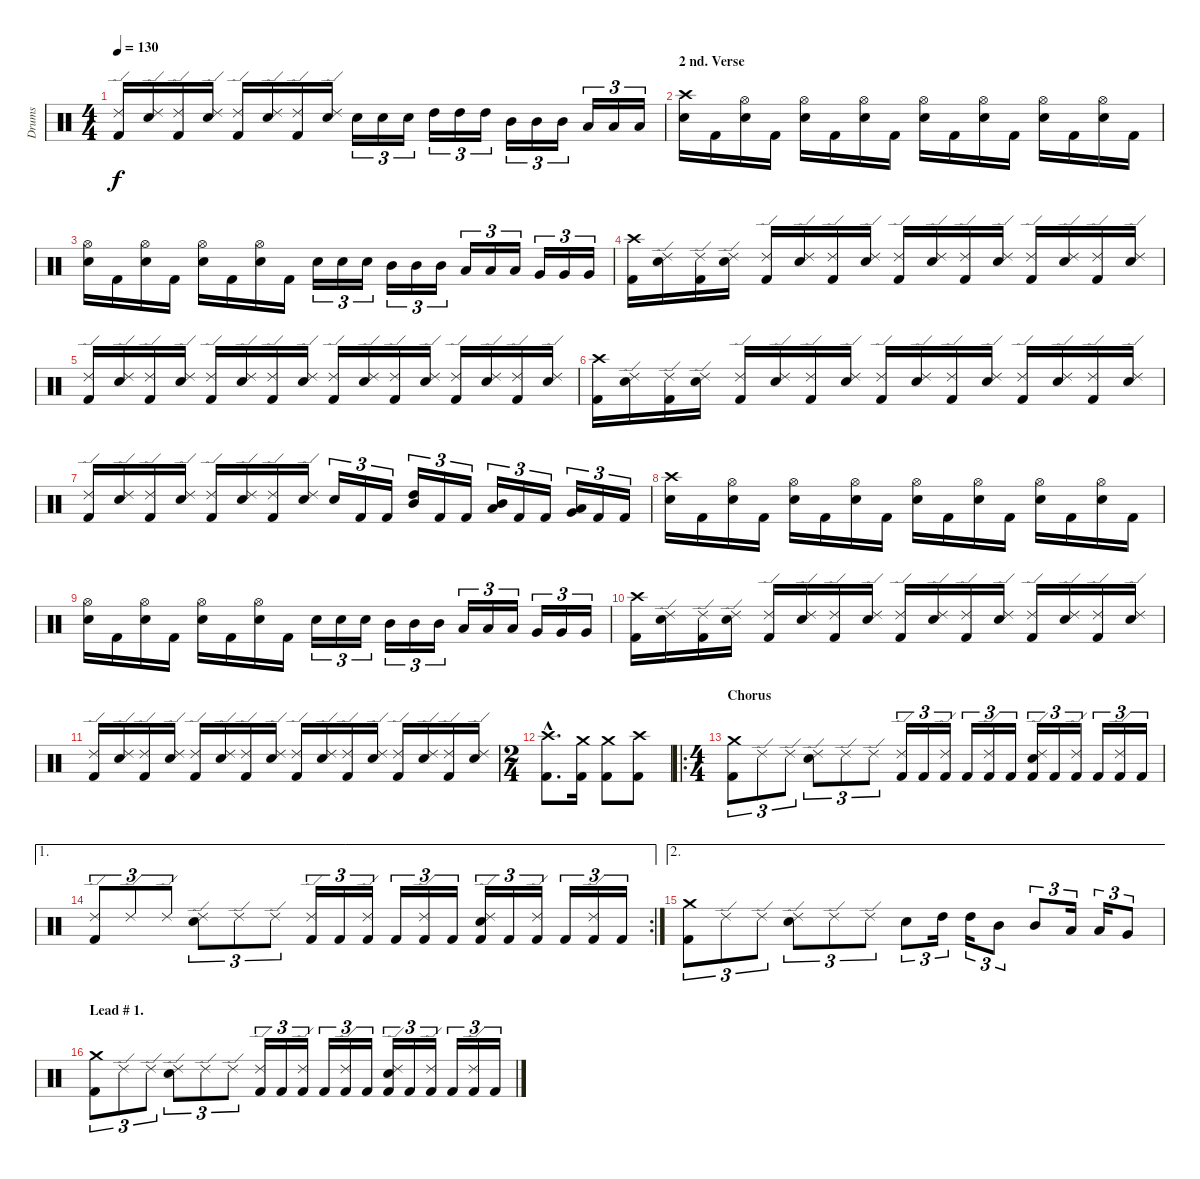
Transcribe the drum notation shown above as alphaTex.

\track ("Drums" "Drums") {instrument percussion}
\staff {score}
\articulation defaults
\ts (4 4)
\tempo 130
\clef neutral
\ks c
("Ride (edge) 2" "Kick (hit) 2").16{dy f} ("Ride (edge) 2" "Snare (hit) 2").16 ("Ride (edge) 2" "Kick (hit) 2").16 ("Ride (edge) 2" "Snare (hit) 2").16 ("Ride (edge) 2" "Kick (hit) 2").16 ("Ride (edge) 2" "Snare (hit) 2").16 ("Ride (edge) 2" "Kick (hit) 2").16 ("Ride (edge) 2" "Snare (hit) 2").16 "Snare (hit) 2".16{tu (3 2)} "Snare (hit) 2".16{tu (3 2)} "Snare (hit) 2".16{tu (3 2)} "High Tom (hit)".16{tu (3 2)} "High Tom (hit)".16{tu (3 2)} "High Tom (hit)".16{tu (3 2)} "Mid Tom (hit)".16{tu (3 2)} "Mid Tom (hit)".16{tu (3 2)} "Mid Tom (hit)".16{tu (3 2)} "Low Tom (hit)".16{tu (3 2)} "Low Tom (hit)".16{tu (3 2)} "Low Tom (hit)".16{tu (3 2)} |
\section ("" "2 nd. Verse")
("Crash high (hit)" "Snare (hit) 2").16 "Kick (hit) 2".16 ("Hi-Hat (open)" "Snare (hit) 2").16 "Kick (hit) 2".16 ("Hi-Hat (open)" "Snare (hit) 2").16 "Kick (hit) 2".16 ("Hi-Hat (open)" "Snare (hit) 2").16 "Kick (hit) 2".16 ("Hi-Hat (open)" "Snare (hit) 2").16 "Kick (hit) 2".16 ("Hi-Hat (open)" "Snare (hit) 2").16 "Kick (hit) 2".16 ("Hi-Hat (open)" "Snare (hit) 2").16 "Kick (hit) 2".16 ("Hi-Hat (open)" "Snare (hit) 2").16 "Kick (hit) 2".16 |
("Hi-Hat (open)" "Snare (hit) 2").16 "Kick (hit) 2".16 ("Hi-Hat (open)" "Snare (hit) 2").16 "Kick (hit) 2".16 ("Hi-Hat (open)" "Snare (hit) 2").16 "Kick (hit) 2".16 ("Hi-Hat (open)" "Snare (hit) 2").16 "Kick (hit) 2".16 "Snare (hit) 2".16{tu (3 2)} "Snare (hit) 2".16{tu (3 2)} "Snare (hit) 2".16{tu (3 2)} "Mid Tom (hit)".16{tu (3 2)} "Mid Tom (hit)".16{tu (3 2)} "Mid Tom (hit)".16{tu (3 2)} "Low Tom (hit)".16{tu (3 2)} "Low Tom (hit)".16{tu (3 2)} "Low Tom (hit)".16{tu (3 2)} "Very Low Tom (hit)".16{tu (3 2)} "Very Low Tom (hit)".16{tu (3 2)} "Very Low Tom (hit)".16{tu (3 2)} |
("Crash high (hit)" "Kick (hit) 2").16 ("Ride (edge) 2" "Snare (hit) 2").16 ("Ride (edge) 2" "Kick (hit) 2").16 ("Ride (edge) 2" "Snare (hit) 2").16 ("Ride (edge) 2" "Kick (hit) 2").16 ("Ride (edge) 2" "Snare (hit) 2").16 ("Ride (edge) 2" "Kick (hit) 2").16 ("Ride (edge) 2" "Snare (hit) 2").16 ("Ride (edge) 2" "Kick (hit) 2").16 ("Ride (edge) 2" "Snare (hit) 2").16 ("Ride (edge) 2" "Kick (hit) 2").16 ("Ride (edge) 2" "Snare (hit) 2").16 ("Ride (edge) 2" "Kick (hit) 2").16 ("Ride (edge) 2" "Snare (hit) 2").16 ("Ride (edge) 2" "Kick (hit) 2").16 ("Ride (edge) 2" "Snare (hit) 2").16 |
("Ride (edge) 2" "Kick (hit) 2").16 ("Ride (edge) 2" "Snare (hit) 2").16 ("Ride (edge) 2" "Kick (hit) 2").16 ("Ride (edge) 2" "Snare (hit) 2").16 ("Ride (edge) 2" "Kick (hit) 2").16 ("Ride (edge) 2" "Snare (hit) 2").16 ("Ride (edge) 2" "Kick (hit) 2").16 ("Ride (edge) 2" "Snare (hit) 2").16 ("Ride (edge) 2" "Kick (hit) 2").16 ("Ride (edge) 2" "Snare (hit) 2").16 ("Ride (edge) 2" "Kick (hit) 2").16 ("Ride (edge) 2" "Snare (hit) 2").16 ("Ride (edge) 2" "Kick (hit) 2").16 ("Ride (edge) 2" "Snare (hit) 2").16 ("Ride (edge) 2" "Kick (hit) 2").16 ("Ride (edge) 2" "Snare (hit) 2").16 |
("Crash high (hit)" "Kick (hit) 2").16 ("Ride (edge) 2" "Snare (hit) 2").16 ("Ride (edge) 2" "Kick (hit) 2").16 ("Ride (edge) 2" "Snare (hit) 2").16 ("Ride (edge) 2" "Kick (hit) 2").16 ("Ride (edge) 2" "Snare (hit) 2").16 ("Ride (edge) 2" "Kick (hit) 2").16 ("Ride (edge) 2" "Snare (hit) 2").16 ("Ride (edge) 2" "Kick (hit) 2").16 ("Ride (edge) 2" "Snare (hit) 2").16 ("Ride (edge) 2" "Kick (hit) 2").16 ("Ride (edge) 2" "Snare (hit) 2").16 ("Ride (edge) 2" "Kick (hit) 2").16 ("Ride (edge) 2" "Snare (hit) 2").16 ("Ride (edge) 2" "Kick (hit) 2").16 ("Ride (edge) 2" "Snare (hit) 2").16 |
("Ride (edge) 2" "Kick (hit) 2").16 ("Ride (edge) 2" "Snare (hit) 2").16 ("Ride (edge) 2" "Kick (hit) 2").16 ("Ride (edge) 2" "Snare (hit) 2").16 ("Ride (edge) 2" "Kick (hit) 2").16 ("Ride (edge) 2" "Snare (hit) 2").16 ("Ride (edge) 2" "Kick (hit) 2").16 ("Ride (edge) 2" "Snare (hit) 2").16 "Snare (hit) 2".16{tu (3 2)} "Kick (hit) 2".16{tu (3 2)} "Kick (hit) 2".16{tu (3 2)} ("Mid Tom (hit)" "High Tom (hit)").16{tu (3 2)} "Kick (hit) 2".16{tu (3 2)} "Kick (hit) 2".16{tu (3 2)} ("Mid Tom (hit)" "Low Tom (hit)").16{tu (3 2)} "Kick (hit) 2".16{tu (3 2)} "Kick (hit) 2".16{tu (3 2)} ("Very Low Tom (hit)" "Low Floor Tom (hit)").16{tu (3 2)} "Kick (hit) 2".16{tu (3 2)} "Kick (hit) 2".16{tu (3 2)} |
("Crash high (hit)" "Snare (hit) 2").16 "Kick (hit) 2".16 ("Hi-Hat (open)" "Snare (hit) 2").16 "Kick (hit) 2".16 ("Hi-Hat (open)" "Snare (hit) 2").16 "Kick (hit) 2".16 ("Hi-Hat (open)" "Snare (hit) 2").16 "Kick (hit) 2".16 ("Hi-Hat (open)" "Snare (hit) 2").16 "Kick (hit) 2".16 ("Hi-Hat (open)" "Snare (hit) 2").16 "Kick (hit) 2".16 ("Hi-Hat (open)" "Snare (hit) 2").16 "Kick (hit) 2".16 ("Hi-Hat (open)" "Snare (hit) 2").16 "Kick (hit) 2".16 |
("Hi-Hat (open)" "Snare (hit) 2").16 "Kick (hit) 2".16 ("Hi-Hat (open)" "Snare (hit) 2").16 "Kick (hit) 2".16 ("Hi-Hat (open)" "Snare (hit) 2").16 "Kick (hit) 2".16 ("Hi-Hat (open)" "Snare (hit) 2").16 "Kick (hit) 2".16 "Snare (hit) 2".16{tu (3 2)} "Snare (hit) 2".16{tu (3 2)} "Snare (hit) 2".16{tu (3 2)} "Mid Tom (hit)".16{tu (3 2)} "Mid Tom (hit)".16{tu (3 2)} "Mid Tom (hit)".16{tu (3 2)} "Low Tom (hit)".16{tu (3 2)} "Low Tom (hit)".16{tu (3 2)} "Low Tom (hit)".16{tu (3 2)} "Very Low Tom (hit)".16{tu (3 2)} "Very Low Tom (hit)".16{tu (3 2)} "Very Low Tom (hit)".16{tu (3 2)} |
("Crash high (hit)" "Kick (hit) 2").16 ("Ride (edge) 2" "Snare (hit) 2").16 ("Ride (edge) 2" "Kick (hit) 2").16 ("Ride (edge) 2" "Snare (hit) 2").16 ("Ride (edge) 2" "Kick (hit) 2").16 ("Ride (edge) 2" "Snare (hit) 2").16 ("Ride (edge) 2" "Kick (hit) 2").16 ("Ride (edge) 2" "Snare (hit) 2").16 ("Ride (edge) 2" "Kick (hit) 2").16 ("Ride (edge) 2" "Snare (hit) 2").16 ("Ride (edge) 2" "Kick (hit) 2").16 ("Ride (edge) 2" "Snare (hit) 2").16 ("Ride (edge) 2" "Kick (hit) 2").16 ("Ride (edge) 2" "Snare (hit) 2").16 ("Ride (edge) 2" "Kick (hit) 2").16 ("Ride (edge) 2" "Snare (hit) 2").16 |
("Ride (edge) 2" "Kick (hit) 2").16 ("Ride (edge) 2" "Snare (hit) 2").16 ("Ride (edge) 2" "Kick (hit) 2").16 ("Ride (edge) 2" "Snare (hit) 2").16 ("Ride (edge) 2" "Kick (hit) 2").16 ("Ride (edge) 2" "Snare (hit) 2").16 ("Ride (edge) 2" "Kick (hit) 2").16 ("Ride (edge) 2" "Snare (hit) 2").16 ("Ride (edge) 2" "Kick (hit) 2").16 ("Ride (edge) 2" "Snare (hit) 2").16 ("Ride (edge) 2" "Kick (hit) 2").16 ("Ride (edge) 2" "Snare (hit) 2").16 ("Ride (edge) 2" "Kick (hit) 2").16 ("Ride (edge) 2" "Snare (hit) 2").16 ("Ride (edge) 2" "Kick (hit) 2").16 ("Ride (edge) 2" "Snare (hit) 2").16 |
\ts (2 4)
("Crash high (hit)"{hac} "Kick (hit) 2"{hac}).8{d} ("Crash medium (hit)" "Kick (hit) 2").16 ("Crash medium (hit)" "Kick (hit) 2").8 ("Crash high (hit)" "Kick (hit) 2").8 |
\ro
\ts (4 4)
\section ("" "Chorus")
("Crash medium (hit)" "Kick (hit) 2").8{tu (3 2)} "Ride (edge) 2".8{tu (3 2)} "Ride (edge) 2".8{tu (3 2)} ("Ride (edge) 2" "Snare (hit) 2").8{tu (3 2)} "Ride (edge) 2".8{tu (3 2)} "Ride (edge) 2".8{tu (3 2)} ("Ride (edge) 2" "Kick (hit) 2").16{tu (3 2)} "Kick (hit) 2".16{tu (3 2)} ("Ride (edge) 2" "Kick (hit) 2").16{tu (3 2)} "Kick (hit) 2".16{tu (3 2)} ("Ride (edge) 2" "Kick (hit) 2").16{tu (3 2)} "Kick (hit) 2".16{tu (3 2)} ("Ride (edge) 2" "Snare (hit) 2" "Kick (hit) 2").16{tu (3 2)} "Kick (hit) 2".16{tu (3 2)} ("Ride (edge) 2" "Kick (hit) 2").16{tu (3 2)} "Kick (hit) 2".16{tu (3 2)} ("Ride (edge) 2" "Kick (hit) 2").16{tu (3 2)} "Kick (hit) 2".16{tu (3 2)} |
\ae 1
\rc 2
("Ride (edge) 2" "Kick (hit) 2").8{tu (3 2)} "Ride (edge) 2".8{tu (3 2)} "Ride (edge) 2".8{tu (3 2)} ("Ride (edge) 2" "Snare (hit) 2").8{tu (3 2)} "Ride (edge) 2".8{tu (3 2)} "Ride (edge) 2".8{tu (3 2)} ("Ride (edge) 2" "Kick (hit) 2").16{tu (3 2)} "Kick (hit) 2".16{tu (3 2)} ("Ride (edge) 2" "Kick (hit) 2").16{tu (3 2)} "Kick (hit) 2".16{tu (3 2)} ("Ride (edge) 2" "Kick (hit) 2").16{tu (3 2)} "Kick (hit) 2".16{tu (3 2)} ("Ride (edge) 2" "Snare (hit) 2" "Kick (hit) 2").16{tu (3 2)} "Kick (hit) 2".16{tu (3 2)} ("Ride (edge) 2" "Kick (hit) 2").16{tu (3 2)} "Kick (hit) 2".16{tu (3 2)} ("Ride (edge) 2" "Kick (hit) 2").16{tu (3 2)} "Kick (hit) 2".16{tu (3 2)} |
\ae 2
("Crash medium (hit)" "Kick (hit) 2").8{tu (3 2)} "Ride (edge) 2".8{tu (3 2)} "Ride (edge) 2".8{tu (3 2)} ("Ride (edge) 2" "Snare (hit) 2").8{tu (3 2)} "Ride (edge) 2".8{tu (3 2)} "Ride (edge) 2".8{tu (3 2)} "Snare (hit) 2".8{tu (3 2)} "High Tom (hit)".16{tu (3 2)} "High Tom (hit)".16{tu (3 2)} "Mid Tom (hit)".8{tu (3 2)} "Mid Tom (hit)".8{tu (3 2)} "Low Tom (hit)".16{tu (3 2)} "Low Tom (hit)".16{tu (3 2)} "Very Low Tom (hit)".8{tu (3 2)} |
\section ("" "Lead # 1.")
("Crash medium (hit)" "Kick (hit) 2").8{tu (3 2)} "Ride (edge) 2".8{tu (3 2)} "Ride (edge) 2".8{tu (3 2)} ("Ride (edge) 2" "Snare (hit) 2").8{tu (3 2)} "Ride (edge) 2".8{tu (3 2)} "Ride (edge) 2".8{tu (3 2)} ("Ride (edge) 2" "Kick (hit) 2").16{tu (3 2)} "Kick (hit) 2".16{tu (3 2)} ("Ride (edge) 2" "Kick (hit) 2").16{tu (3 2)} "Kick (hit) 2".16{tu (3 2)} ("Ride (edge) 2" "Kick (hit) 2").16{tu (3 2)} "Kick (hit) 2".16{tu (3 2)} ("Ride (edge) 2" "Snare (hit) 2" "Kick (hit) 2").16{tu (3 2)} "Kick (hit) 2".16{tu (3 2)} ("Ride (edge) 2" "Kick (hit) 2").16{tu (3 2)} "Kick (hit) 2".16{tu (3 2)} ("Ride (edge) 2" "Kick (hit) 2").16{tu (3 2)} "Kick (hit) 2".16{tu (3 2)}
